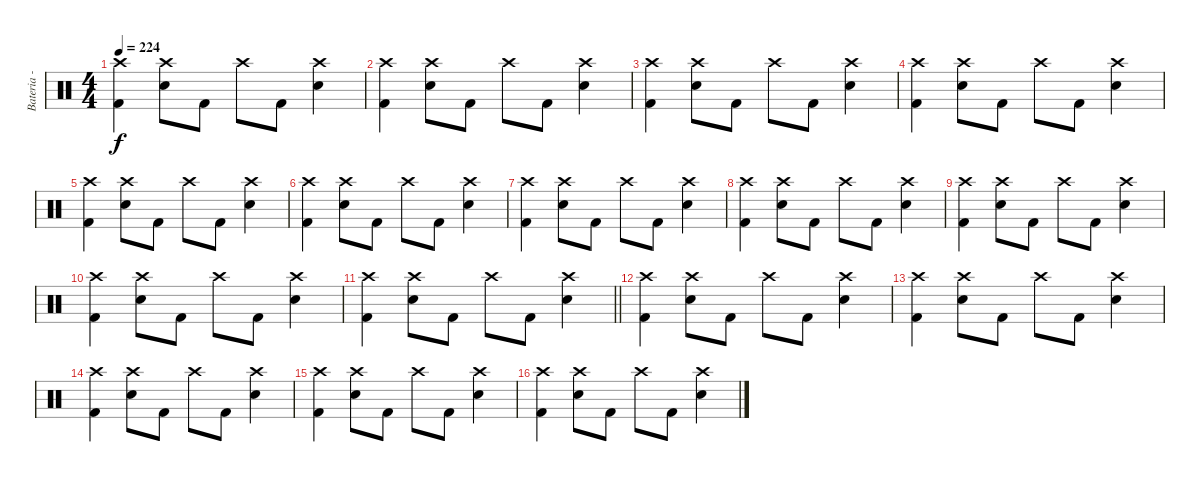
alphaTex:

\track ("Bateria - Larzon" "Bateria - ") {instrument percussion}
\staff {score}
\articulation defaults
\ts (4 4)
\tempo 224
\clef neutral
\ks c
("Kick (hit) 2" "Crash high (hit)").4{dy f} ("Electric Snare (hit)" "Crash high (hit)").8 "Kick (hit) 2".8 "Crash high (hit)".8 "Kick (hit) 2".8 ("Electric Snare (hit)" "Crash high (hit)").4 |
("Kick (hit) 2" "Crash high (hit)").4 ("Electric Snare (hit)" "Crash high (hit)").8 "Kick (hit) 2".8 "Crash high (hit)".8 "Kick (hit) 2".8 ("Electric Snare (hit)" "Crash high (hit)").4 |
("Kick (hit) 2" "Crash high (hit)").4 ("Electric Snare (hit)" "Crash high (hit)").8 "Kick (hit) 2".8 "Crash high (hit)".8 "Kick (hit) 2".8 ("Electric Snare (hit)" "Crash high (hit)").4 |
("Kick (hit) 2" "Crash high (hit)").4 ("Electric Snare (hit)" "Crash high (hit)").8 "Kick (hit) 2".8 "Crash high (hit)".8 "Kick (hit) 2".8 ("Electric Snare (hit)" "Crash high (hit)").4 |
("Kick (hit) 2" "Crash high (hit)").4 ("Electric Snare (hit)" "Crash high (hit)").8 "Kick (hit) 2".8 "Crash high (hit)".8 "Kick (hit) 2".8 ("Electric Snare (hit)" "Crash high (hit)").4 |
("Kick (hit) 2" "Crash high (hit)").4 ("Electric Snare (hit)" "Crash high (hit)").8 "Kick (hit) 2".8 "Crash high (hit)".8 "Kick (hit) 2".8 ("Electric Snare (hit)" "Crash high (hit)").4 |
("Kick (hit) 2" "Crash high (hit)").4 ("Electric Snare (hit)" "Crash high (hit)").8 "Kick (hit) 2".8 "Crash high (hit)".8 "Kick (hit) 2".8 ("Electric Snare (hit)" "Crash high (hit)").4 |
("Kick (hit) 2" "Crash high (hit)").4 ("Electric Snare (hit)" "Crash high (hit)").8 "Kick (hit) 2".8 "Crash high (hit)".8 "Kick (hit) 2".8 ("Electric Snare (hit)" "Crash high (hit)").4 |
("Kick (hit) 2" "Crash high (hit)").4 ("Electric Snare (hit)" "Crash high (hit)").8 "Kick (hit) 2".8 "Crash high (hit)".8 "Kick (hit) 2".8 ("Electric Snare (hit)" "Crash high (hit)").4 |
("Kick (hit) 2" "Crash high (hit)").4 ("Electric Snare (hit)" "Crash high (hit)").8 "Kick (hit) 2".8 "Crash high (hit)".8 "Kick (hit) 2".8 ("Electric Snare (hit)" "Crash high (hit)").4 |
\barLineRight lightlight
("Kick (hit) 2" "Crash high (hit)").4 ("Electric Snare (hit)" "Crash high (hit)").8 "Kick (hit) 2".8 "Crash high (hit)".8 "Kick (hit) 2".8 ("Electric Snare (hit)" "Crash high (hit)").4 |
("Kick (hit) 2" "Crash high (hit)").4 ("Electric Snare (hit)" "Crash high (hit)").8 "Kick (hit) 2".8 "Crash high (hit)".8 "Kick (hit) 2".8 ("Electric Snare (hit)" "Crash high (hit)").4 |
("Kick (hit) 2" "Crash high (hit)").4 ("Electric Snare (hit)" "Crash high (hit)").8 "Kick (hit) 2".8 "Crash high (hit)".8 "Kick (hit) 2".8 ("Electric Snare (hit)" "Crash high (hit)").4 |
("Kick (hit) 2" "Crash high (hit)").4 ("Electric Snare (hit)" "Crash high (hit)").8 "Kick (hit) 2".8 "Crash high (hit)".8 "Kick (hit) 2".8 ("Electric Snare (hit)" "Crash high (hit)").4 |
("Kick (hit) 2" "Crash high (hit)").4 ("Electric Snare (hit)" "Crash high (hit)").8 "Kick (hit) 2".8 "Crash high (hit)".8 "Kick (hit) 2".8 ("Electric Snare (hit)" "Crash high (hit)").4 |
("Kick (hit) 2" "Crash high (hit)").4 ("Electric Snare (hit)" "Crash high (hit)").8 "Kick (hit) 2".8 "Crash high (hit)".8 "Kick (hit) 2".8 ("Electric Snare (hit)" "Crash high (hit)").4
